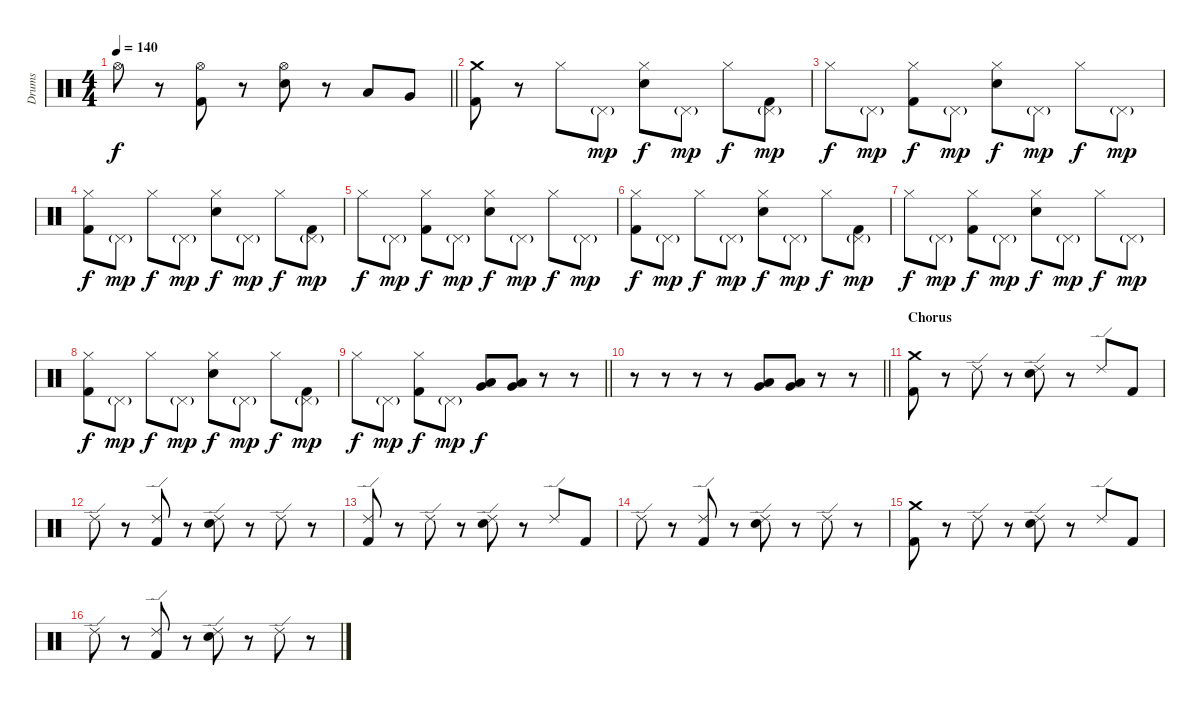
\track ("Drums" "Drums") {instrument percussion}
\staff {score}
\articulation defaults
\ts (4 4)
\tempo 140
\clef neutral
\barLineRight lightlight
\ks c "Hi-Hat (open)".8{dy f}
r.8 ("Hi-Hat (open)" "Kick (hit) 2").8 r.8 ("Hi-Hat (open)" "Electric Snare (hit)").8 r.8 "Low Tom (hit)".8 "Very Low Tom (hit)".8 |
("Crash medium (hit)" "Kick (hit) 2").8 r.8 "Hi-Hat (closed)".8 "Pedal Hi-Hat (hit)"{g}.8{dy mp} ("Hi-Hat (closed)" "Electric Snare (hit)").8{dy f} "Pedal Hi-Hat (hit)"{g}.8{dy mp} "Hi-Hat (closed)".8{dy f} ("Pedal Hi-Hat (hit)"{g} "Kick (hit) 2").8{dy mp} |
"Hi-Hat (closed)".8{dy f} "Pedal Hi-Hat (hit)"{g}.8{dy mp} ("Hi-Hat (closed)" "Kick (hit) 2").8{dy f} "Pedal Hi-Hat (hit)"{g}.8{dy mp} ("Hi-Hat (closed)" "Electric Snare (hit)").8{dy f} "Pedal Hi-Hat (hit)"{g}.8{dy mp} "Hi-Hat (closed)".8{dy f} "Pedal Hi-Hat (hit)"{g}.8{dy mp} |
("Hi-Hat (closed)" "Kick (hit) 2").8{dy f} "Pedal Hi-Hat (hit)"{g}.8{dy mp} "Hi-Hat (closed)".8{dy f} "Pedal Hi-Hat (hit)"{g}.8{dy mp} ("Hi-Hat (closed)" "Electric Snare (hit)").8{dy f} "Pedal Hi-Hat (hit)"{g}.8{dy mp} "Hi-Hat (closed)".8{dy f} ("Pedal Hi-Hat (hit)"{g} "Kick (hit) 2").8{dy mp} |
"Hi-Hat (closed)".8{dy f} "Pedal Hi-Hat (hit)"{g}.8{dy mp} ("Hi-Hat (closed)" "Kick (hit) 2").8{dy f} "Pedal Hi-Hat (hit)"{g}.8{dy mp} ("Hi-Hat (closed)" "Electric Snare (hit)").8{dy f} "Pedal Hi-Hat (hit)"{g}.8{dy mp} "Hi-Hat (closed)".8{dy f} "Pedal Hi-Hat (hit)"{g}.8{dy mp} |
("Hi-Hat (closed)" "Kick (hit) 2").8{dy f} "Pedal Hi-Hat (hit)"{g}.8{dy mp} "Hi-Hat (closed)".8{dy f} "Pedal Hi-Hat (hit)"{g}.8{dy mp} ("Hi-Hat (closed)" "Electric Snare (hit)").8{dy f} "Pedal Hi-Hat (hit)"{g}.8{dy mp} "Hi-Hat (closed)".8{dy f} ("Pedal Hi-Hat (hit)"{g} "Kick (hit) 2").8{dy mp} |
"Hi-Hat (closed)".8{dy f} "Pedal Hi-Hat (hit)"{g}.8{dy mp} ("Hi-Hat (closed)" "Kick (hit) 2").8{dy f} "Pedal Hi-Hat (hit)"{g}.8{dy mp} ("Hi-Hat (closed)" "Electric Snare (hit)").8{dy f} "Pedal Hi-Hat (hit)"{g}.8{dy mp} "Hi-Hat (closed)".8{dy f} "Pedal Hi-Hat (hit)"{g}.8{dy mp} |
("Hi-Hat (closed)" "Kick (hit) 2").8{dy f} "Pedal Hi-Hat (hit)"{g}.8{dy mp} "Hi-Hat (closed)".8{dy f} "Pedal Hi-Hat (hit)"{g}.8{dy mp} ("Hi-Hat (closed)" "Electric Snare (hit)").8{dy f} "Pedal Hi-Hat (hit)"{g}.8{dy mp} "Hi-Hat (closed)".8{dy f} ("Pedal Hi-Hat (hit)"{g} "Kick (hit) 2").8{dy mp} |
\barLineRight lightlight "Hi-Hat (closed)".8{dy f} "Pedal Hi-Hat (hit)"{g}.8{dy mp}
("Hi-Hat (closed)" "Kick (hit) 2").8{dy f} "Pedal Hi-Hat (hit)"{g}.8{dy mp} ("Very Low Tom (hit)" "Low Tom (hit)").8{dy f} ("Very Low Tom (hit)" "Low Tom (hit)").8 r.8 r.8 |
\barLineRight lightlight
r.8 r.8 r.8 r.8 ("Very Low Tom (hit)" "Low Tom (hit)").8 ("Very Low Tom (hit)" "Low Tom (hit)").8 r.8 r.8 |
\section ("" "Chorus")
("Crash medium (hit)" "Kick (hit) 2").8 r.8 "Ride (edge) 2".8 r.8 ("Ride (edge) 2" "Electric Snare (hit)").8 r.8 "Ride (edge) 2".8 "Kick (hit) 2".8 |
"Ride (edge) 2".8 r.8 ("Ride (edge) 2" "Kick (hit) 2").8 r.8 ("Ride (edge) 2" "Electric Snare (hit)").8 r.8 "Ride (edge) 2".8 r.8 |
("Ride (edge) 2" "Kick (hit) 2").8 r.8 "Ride (edge) 2".8 r.8 ("Ride (edge) 2" "Electric Snare (hit)").8 r.8 "Ride (edge) 2".8 "Kick (hit) 2".8 |
"Ride (edge) 2".8 r.8 ("Ride (edge) 2" "Kick (hit) 2").8 r.8 ("Ride (edge) 2" "Electric Snare (hit)").8 r.8 "Ride (edge) 2".8 r.8 |
("Crash medium (hit)" "Kick (hit) 2").8 r.8 "Ride (edge) 2".8 r.8 ("Ride (edge) 2" "Electric Snare (hit)").8 r.8 "Ride (edge) 2".8 "Kick (hit) 2".8 |
"Ride (edge) 2".8 r.8 ("Ride (edge) 2" "Kick (hit) 2").8 r.8 ("Ride (edge) 2" "Electric Snare (hit)").8 r.8 "Ride (edge) 2".8 r.8
